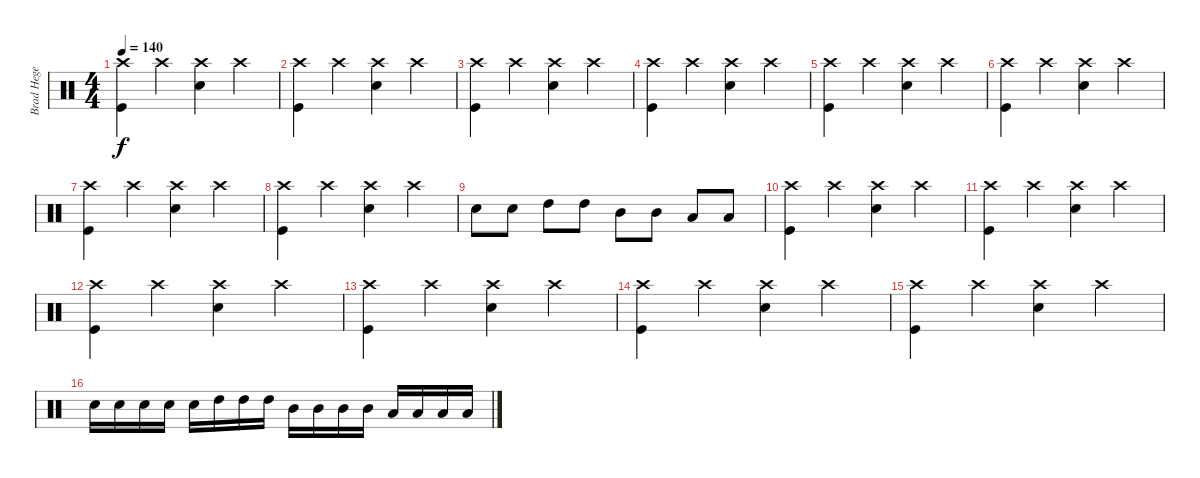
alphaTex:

\track ("Brad Hege" "Brad Hege") {instrument percussion}
\staff {score}
\articulation defaults
\ts (4 4)
\tempo 140
\clef neutral
\ks c
("Crash high (hit)" "Kick (hit)").4{dy f} "Crash high (hit)".4 ("Crash high (hit)" "Snare (hit) 2").4 "Crash high (hit)".4 |
("Crash high (hit)" "Kick (hit)").4 "Crash high (hit)".4 ("Crash high (hit)" "Snare (hit) 2").4 "Crash high (hit)".4 |
("Crash high (hit)" "Kick (hit)").4 "Crash high (hit)".4 ("Crash high (hit)" "Snare (hit) 2").4 "Crash high (hit)".4 |
("Crash high (hit)" "Kick (hit)").4 "Crash high (hit)".4 ("Crash high (hit)" "Snare (hit) 2").4 "Crash high (hit)".4 |
("Crash high (hit)" "Kick (hit)").4 "Crash high (hit)".4 ("Crash high (hit)" "Snare (hit) 2").4 "Crash high (hit)".4 |
("Crash high (hit)" "Kick (hit)").4 "Crash high (hit)".4 ("Crash high (hit)" "Snare (hit) 2").4 "Crash high (hit)".4 |
("Crash high (hit)" "Kick (hit)").4 "Crash high (hit)".4 ("Crash high (hit)" "Snare (hit) 2").4 "Crash high (hit)".4 |
("Crash high (hit)" "Kick (hit)").4 "Crash high (hit)".4 ("Crash high (hit)" "Snare (hit) 2").4 "Crash high (hit)".4 |
"Snare (hit) 2".8 "Snare (hit) 2".8 "High Tom (hit)".8 "High Tom (hit)".8 "Mid Tom (hit)".8 "Mid Tom (hit)".8 "Low Floor Tom (hit)".8 "Low Floor Tom (hit)".8 |
("Crash high (hit)" "Kick (hit)").4 "Crash high (hit)".4 ("Crash high (hit)" "Snare (hit) 2").4 "Crash high (hit)".4 |
("Crash high (hit)" "Kick (hit)").4 "Crash high (hit)".4 ("Crash high (hit)" "Snare (hit) 2").4 "Crash high (hit)".4 |
("Crash high (hit)" "Kick (hit)").4 "Crash high (hit)".4 ("Crash high (hit)" "Snare (hit) 2").4 "Crash high (hit)".4 |
("Crash high (hit)" "Kick (hit)").4 "Crash high (hit)".4 ("Crash high (hit)" "Snare (hit) 2").4 "Crash high (hit)".4 |
("Crash high (hit)" "Kick (hit)").4 "Crash high (hit)".4 ("Crash high (hit)" "Snare (hit) 2").4 "Crash high (hit)".4 |
("Crash high (hit)" "Kick (hit)").4 "Crash high (hit)".4 ("Crash high (hit)" "Snare (hit) 2").4 "Crash high (hit)".4 |
"Snare (hit) 2".16 "Snare (hit) 2".16 "Snare (hit) 2".16 "Snare (hit) 2".16 "Snare (hit) 2".16 "High Tom (hit)".16 "High Tom (hit)".16 "High Tom (hit)".16 "Mid Tom (hit)".16 "Mid Tom (hit)".16 "Mid Tom (hit)".16 "Mid Tom (hit)".16 "Low Floor Tom (hit)".16 "Low Floor Tom (hit)".16 "Low Floor Tom (hit)".16 "Low Floor Tom (hit)".16
